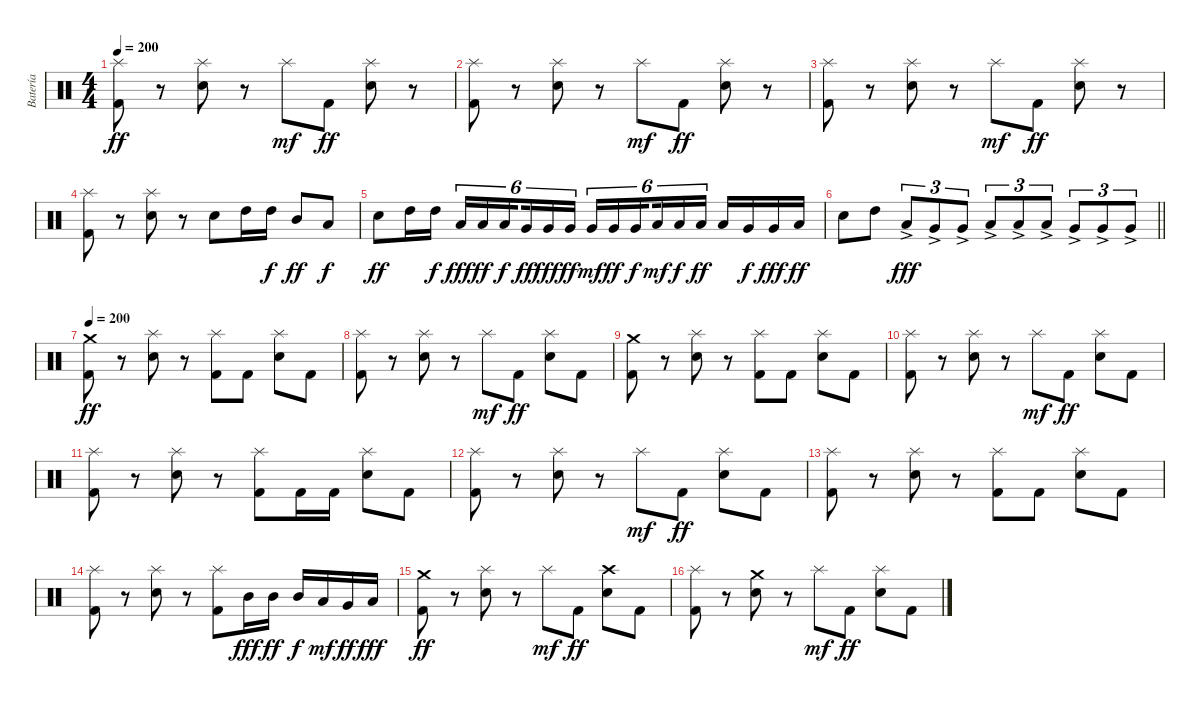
\track ("Batería" "Batería") {instrument percussion}
\staff {score}
\articulation defaults
\ts (4 4)
\tempo 200
\clef neutral
\ks c
("Splash (hit)" "Kick (hit) 2").8{dy ff} r.8 ("Splash (hit)" "Electric Snare (hit)").8 r.8 "Splash (hit)".8{dy mf} "Kick (hit) 2".8{dy ff} ("Splash (hit)" "Electric Snare (hit)").8 r.8 |
("Splash (hit)" "Kick (hit) 2").8 r.8 ("Splash (hit)" "Electric Snare (hit)").8 r.8 "Splash (hit)".8{dy mf} "Kick (hit) 2".8{dy ff} ("Splash (hit)" "Electric Snare (hit)").8 r.8 |
("Splash (hit)" "Kick (hit) 2").8 r.8 ("Splash (hit)" "Electric Snare (hit)").8 r.8 "Splash (hit)".8{dy mf} "Kick (hit) 2".8{dy ff} ("Splash (hit)" "Electric Snare (hit)").8 r.8 |
("Splash (hit)" "Kick (hit) 2").8 r.8 ("Splash (hit)" "Electric Snare (hit)").8 r.8 "Electric Snare (hit)".8 "High Tom (hit)".16 "High Tom (hit)".16{dy f} "Mid Tom (hit)".8{dy ff} "Low Tom (hit)".8{dy f} |
"Electric Snare (hit)".8{dy ff} "High Tom (hit)".16 "High Tom (hit)".16{dy f} "Low Tom (hit)".16{tu (6 4) dy fff} "Low Tom (hit)".16{tu (6 4) dy ff} "Low Tom (hit)".16{tu (6 4) dy f beam splitsecondary} "Very Low Tom (hit)".16{tu (6 4) dy ff} "Very Low Tom (hit)".16{tu (6 4) dy fff} "Very Low Tom (hit)".16{tu (6 4) dy ff} "Very Low Tom (hit)".16{tu (6 4) dy mf} "Very Low Tom (hit)".16{tu (6 4) dy ff} "Very Low Tom (hit)".16{tu (6 4) dy f beam splitsecondary} "Low Floor Tom (hit)".16{tu (6 4) dy mf} "Low Floor Tom (hit)".16{tu (6 4) dy f} "Low Floor Tom (hit)".16{tu (6 4) dy ff} "Low Tom (hit)".16 "Very Low Tom (hit)".16{dy f} "Very Low Tom (hit)".16{dy fff} "Low Floor Tom (hit)".16{dy ff} |
\barLineRight lightlight "Electric Snare (hit)".8 "High Tom (hit)".8 "Low Tom (hit)"{ac}.8{tu (3 2) dy fff} "Very Low Tom (hit)"{ac}.8{tu (3 2)} "Very Low Tom (hit)"{ac}.8{tu (3 2)} "Low Tom (hit)"{ac}.8{tu (3 2)} "Low Tom (hit)"{ac}.8{tu (3 2)} "Low Tom (hit)"{ac}.8{tu (3 2)} "Very Low Tom (hit)"{ac}.8{tu (3 2)} "Very Low Tom (hit)"{ac}.8{tu (3 2)} "Very Low Tom (hit)"{ac}.8{tu (3 2)}
|
\tempo 200
("Crash medium (hit)" "Kick (hit) 2").8{dy ff} r.8 ("Splash (hit)" "Electric Snare (hit)").8 r.8 ("Splash (hit)" "Kick (hit) 2").8 "Kick (hit) 2".8 ("Splash (hit)" "Electric Snare (hit)").8 "Kick (hit) 2".8 |
("Splash (hit)" "Kick (hit) 2").8 r.8 ("Splash (hit)" "Electric Snare (hit)").8 r.8 "Splash (hit)".8{dy mf} "Kick (hit) 2".8{dy ff} ("Splash (hit)" "Electric Snare (hit)").8 "Kick (hit) 2".8 |
("Crash medium (hit)" "Kick (hit) 2").8 r.8 ("Splash (hit)" "Electric Snare (hit)").8 r.8 ("Splash (hit)" "Kick (hit) 2").8 "Kick (hit) 2".8 ("Splash (hit)" "Electric Snare (hit)").8 "Kick (hit) 2".8 |
("Splash (hit)" "Kick (hit) 2").8 r.8 ("Splash (hit)" "Electric Snare (hit)").8 r.8 "Splash (hit)".8{dy mf} "Kick (hit) 2".8{dy ff} ("Splash (hit)" "Electric Snare (hit)").8 "Kick (hit) 2".8 |
("Splash (hit)" "Kick (hit) 2").8 r.8 ("Splash (hit)" "Electric Snare (hit)").8 r.8 ("Splash (hit)" "Kick (hit) 2").8 "Kick (hit) 2".16 "Kick (hit) 2".16 ("Splash (hit)" "Electric Snare (hit)").8 "Kick (hit) 2".8 |
("Splash (hit)" "Kick (hit) 2").8 r.8 ("Splash (hit)" "Electric Snare (hit)").8 r.8 "Splash (hit)".8{dy mf} "Kick (hit) 2".8{dy ff} ("Splash (hit)" "Electric Snare (hit)").8 "Kick (hit) 2".8 |
("Splash (hit)" "Kick (hit) 2").8 r.8 ("Splash (hit)" "Electric Snare (hit)").8 r.8 ("Splash (hit)" "Kick (hit) 2").8 "Kick (hit) 2".8 ("Splash (hit)" "Electric Snare (hit)").8 "Kick (hit) 2".8 |
("Splash (hit)" "Kick (hit) 2").8 r.8 ("Splash (hit)" "Electric Snare (hit)").8 r.8 ("Splash (hit)" "Kick (hit) 2").8 "Mid Tom (hit)".16{dy fff} "Mid Tom (hit)".16{dy ff} "Mid Tom (hit)".16{dy f} "Low Tom (hit)".16{dy mf} "Very Low Tom (hit)".16{dy ff} "Low Floor Tom (hit)".16{dy fff} |
("Crash medium (hit)" "Kick (hit) 2").8{dy ff} r.8 ("Splash (hit)" "Electric Snare (hit)").8 r.8 "Splash (hit)".8{dy mf} "Kick (hit) 2".8{dy ff} ("Crash high (hit)" "Electric Snare (hit)").8 "Kick (hit) 2".8 |
("Splash (hit)" "Kick (hit) 2").8 r.8 ("Crash medium (hit)" "Electric Snare (hit)").8 r.8 "Splash (hit)".8{dy mf} "Kick (hit) 2".8{dy ff} ("Splash (hit)" "Electric Snare (hit)").8 "Kick (hit) 2".8
